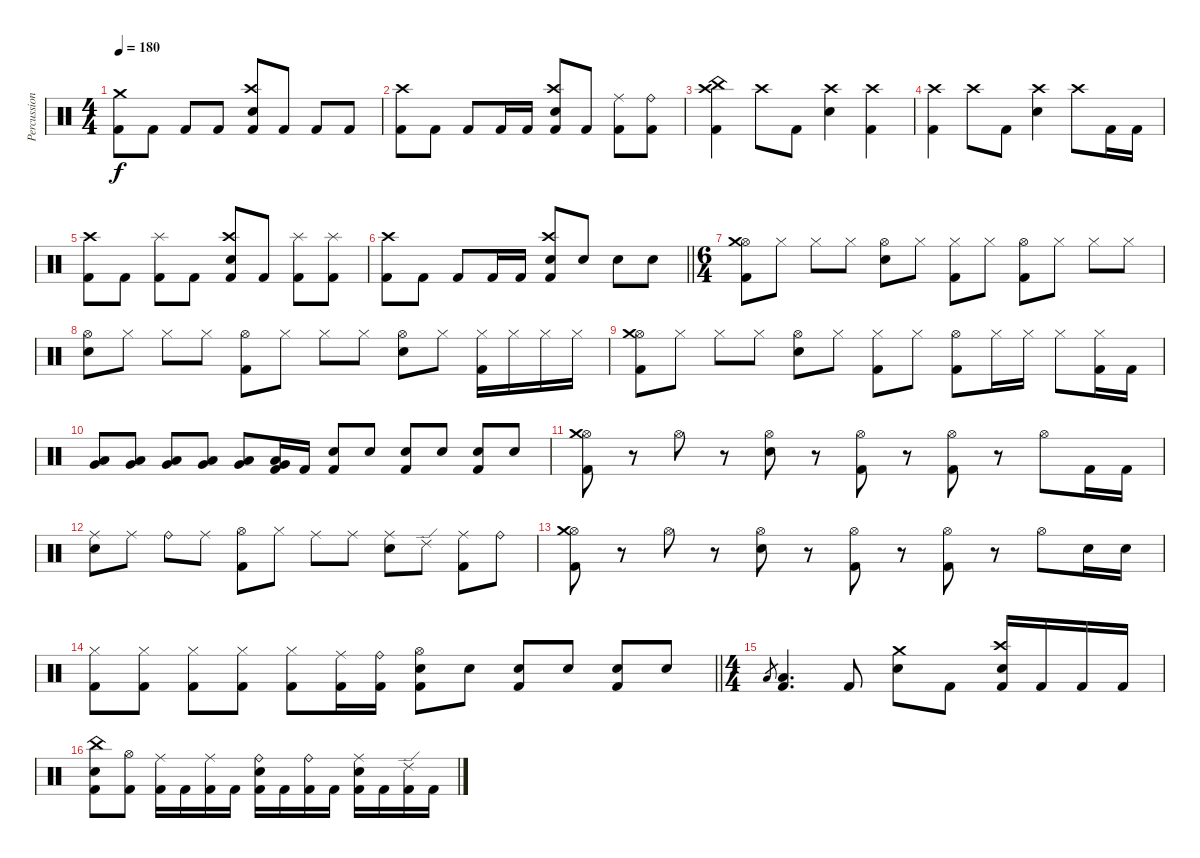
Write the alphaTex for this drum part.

\track ("Percussions" "Percussion") {instrument percussion}
\staff {score}
\articulation defaults
\ts (4 4)
\tempo 180
\clef neutral
\ks c
("Crash medium (hit)" "Kick (hit) 2").8{dy f} "Kick (hit) 2".8 "Kick (hit) 2".8 "Kick (hit) 2".8 ("Crash high (hit)" "Electric Snare (hit)" "Kick (hit) 2").8 "Kick (hit) 2".8 "Kick (hit) 2".8 "Kick (hit) 2".8 |
("Crash high (hit)" "Kick (hit) 2").8 "Kick (hit) 2".8 "Kick (hit) 2".8 "Kick (hit) 2".16 "Kick (hit) 2".16 ("Crash high (hit)" "Electric Snare (hit)" "Kick (hit) 2").8 "Kick (hit) 2".8 ("Ride (middle)" "Kick (hit) 2").8 ("Ride (bell)" "Kick (hit) 2").8 |
("Crash high (hit)" "China (hit)" "Kick (hit) 2").4 "Crash high (hit)".8 "Kick (hit) 2".8 ("Crash high (hit)" "Electric Snare (hit)").4 ("Crash high (hit)" "Kick (hit) 2").4 |
("Crash high (hit)" "Kick (hit) 2").4 "Crash high (hit)".8 "Kick (hit) 2".8 ("Crash high (hit)" "Electric Snare (hit)").4 "Crash high (hit)".8 "Kick (hit) 2".16 "Kick (hit) 2".16 |
("Crash high (hit)" "Kick (hit) 2").8 "Kick (hit) 2".8 ("Splash (hit)" "Kick (hit) 2").8 "Kick (hit) 2".8 ("Crash high (hit)" "Electric Snare (hit)" "Kick (hit) 2").8 "Kick (hit) 2".8 ("Splash (hit)" "Kick (hit) 2").8 ("Splash (hit)" "Kick (hit) 2").8 |
\barLineRight lightlight
("Crash high (hit)" "Kick (hit) 2").8 "Kick (hit) 2".8 "Kick (hit) 2".8 "Kick (hit) 2".16 "Kick (hit) 2".16 ("Crash high (hit)" "Electric Snare (hit)" "Kick (hit) 2").8 "Electric Snare (hit)".8 "Electric Snare (hit)".8 "Electric Snare (hit)".8 |
\ts (6 4)
("Hi-Hat (open)" "Crash medium (hit)" "Kick (hit) 2").8 "Hi-Hat (closed)".8 "Hi-Hat (closed)".8 "Hi-Hat (closed)".8 ("Hi-Hat (open)" "Electric Snare (hit)").8 "Hi-Hat (closed)".8 ("Hi-Hat (closed)" "Kick (hit) 2").8 "Hi-Hat (closed)".8 ("Hi-Hat (open)" "Kick (hit) 2").8 "Hi-Hat (closed)".8 "Hi-Hat (closed)".8 "Hi-Hat (closed)".8 |
("Hi-Hat (open)" "Electric Snare (hit)").8 "Hi-Hat (closed)".8 "Hi-Hat (closed)".8 "Hi-Hat (closed)".8 ("Hi-Hat (open)" "Kick (hit) 2").8 "Hi-Hat (closed)".8 "Hi-Hat (closed)".8 "Hi-Hat (closed)".8 ("Hi-Hat (open)" "Electric Snare (hit)").8 "Hi-Hat (closed)".8 ("Hi-Hat (closed)" "Kick (hit) 2").16 "Hi-Hat (closed)".16 "Hi-Hat (closed)".16 "Hi-Hat (closed)".16 |
("Hi-Hat (open)" "Crash medium (hit)" "Kick (hit) 2").8 "Hi-Hat (closed)".8 "Hi-Hat (closed)".8 "Hi-Hat (closed)".8 ("Hi-Hat (open)" "Electric Snare (hit)").8 "Hi-Hat (closed)".8 ("Hi-Hat (closed)" "Kick (hit) 2").8 "Hi-Hat (closed)".8 ("Hi-Hat (open)" "Kick (hit) 2").8 "Hi-Hat (closed)".16 "Hi-Hat (closed)".16 "Hi-Hat (closed)".8 ("Hi-Hat (closed)" "Kick (hit) 2").16 "Kick (hit) 2".16 |
("Low Tom (hit)" "Very Low Tom (hit)").8 ("Low Tom (hit)" "Very Low Tom (hit)").8 ("Low Tom (hit)" "Very Low Tom (hit)").8 ("Low Tom (hit)" "Very Low Tom (hit)").8 ("Low Tom (hit)" "Very Low Tom (hit)").8 ("Low Tom (hit)" "Very Low Tom (hit)" "Kick (hit) 2").16 "Kick (hit) 2".16 ("Electric Snare (hit)" "Kick (hit) 2").8 "Electric Snare (hit)".8 ("Electric Snare (hit)" "Kick (hit) 2").8 "Electric Snare (hit)".8 ("Electric Snare (hit)" "Kick (hit) 2").8 "Electric Snare (hit)".8 |
("Hi-Hat (open)" "Crash medium (hit)" "Kick (hit) 2").8 r.8 "Hi-Hat (open)".8 r.8 ("Hi-Hat (open)" "Electric Snare (hit)").8 r.8 ("Hi-Hat (open)" "Kick (hit) 2").8 r.8 ("Hi-Hat (open)" "Kick (hit) 2").8 r.8 "Hi-Hat (open)".8 "Kick (hit) 2".16 "Kick (hit) 2".16 |
("Ride (middle)" "Electric Snare (hit)").8 "Ride (middle)".8 "Ride (bell)".8 "Ride (middle)".8 ("Hi-Hat (open)" "Kick (hit) 2").8 "Hi-Hat (closed)".8 "Ride (middle)".8 "Ride (middle)".8 ("Ride (middle)" "Electric Snare (hit)").8 "Ride (edge) 2".8 ("Ride (middle)" "Kick (hit) 2").8 "Ride (bell)".8 |
("Hi-Hat (open)" "Crash medium (hit)" "Kick (hit) 2").8 r.8 "Hi-Hat (open)".8 r.8 ("Hi-Hat (open)" "Electric Snare (hit)").8 r.8 ("Hi-Hat (open)" "Kick (hit) 2").8 r.8 ("Hi-Hat (open)" "Kick (hit) 2").8 r.8 "Hi-Hat (open)".8 "Electric Snare (hit)".16 "Electric Snare (hit)".16 |
\barLineRight lightlight
("Hi-Hat (closed)" "Kick (hit) 2").8 ("Hi-Hat (closed)" "Kick (hit) 2").8 ("Hi-Hat (closed)" "Kick (hit) 2").8 ("Hi-Hat (closed)" "Kick (hit) 2").8 ("Hi-Hat (closed)" "Kick (hit) 2").8 ("Ride (middle)" "Kick (hit) 2").16 ("Ride (bell)" "Kick (hit) 2").16 ("Hi-Hat (open)" "Electric Snare (hit)" "Kick (hit) 2").8 "Electric Snare (hit)".8 ("Electric Snare (hit)" "Kick (hit) 2").8 "Electric Snare (hit)".8 ("Electric Snare (hit)" "Kick (hit) 2").8 "Electric Snare (hit)".8 |
\ts (4 4)
"Low Tom (hit)".8{gr} ("Low Tom (hit)" "Kick (hit) 2").4{d} "Kick (hit) 2".8 ("Crash medium (hit)" "Electric Snare (hit)").8 "Kick (hit) 2".8 ("Crash high (hit)" "Electric Snare (hit)" "Kick (hit) 2").16 "Kick (hit) 2".16 "Kick (hit) 2".16 "Kick (hit) 2".16 |
("China (hit)" "Electric Snare (hit)" "Kick (hit) 2").8 ("Hi-Hat (open)" "Kick (hit) 2").8 ("Ride (middle)" "Kick (hit) 2").16 "Kick (hit) 2".16 ("Ride (middle)" "Kick (hit) 2").16 "Kick (hit) 2".16 ("Ride (bell)" "Electric Snare (hit)" "Kick (hit) 2").16 "Kick (hit) 2".16 ("Ride (bell)" "Kick (hit) 2").16 "Kick (hit) 2".16 ("Ride (middle)" "Electric Snare (hit)" "Kick (hit) 2").16 "Kick (hit) 2".16 ("Ride (edge) 2" "Kick (hit) 2").16 "Kick (hit) 2".16
